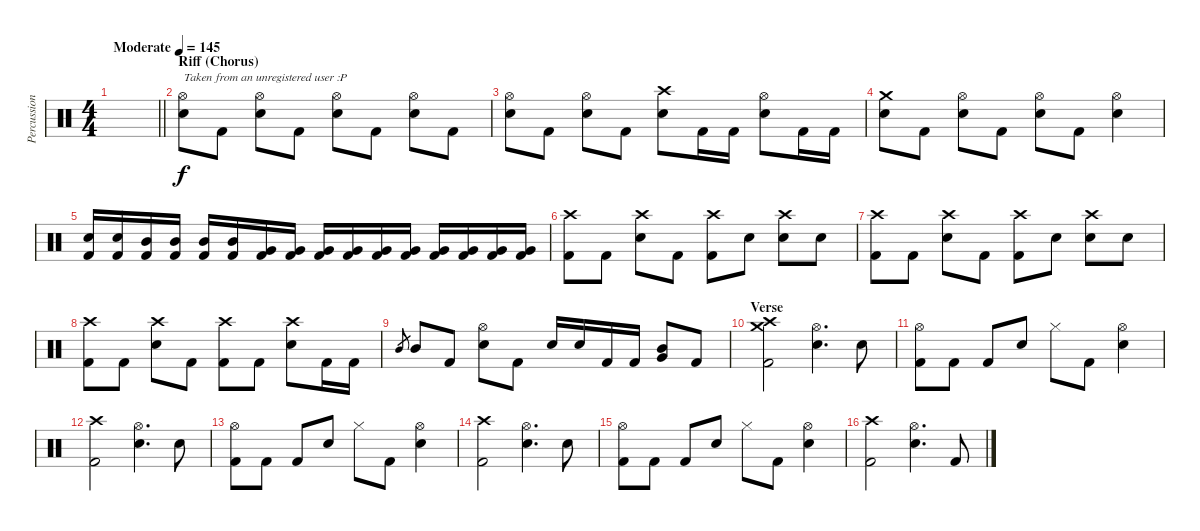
\track ("Percussion" "Percussion") {instrument percussion}
\staff {score}
\articulation defaults
\ts (4 4)
\tempo (145 "Moderate")
\clef neutral
\barLineRight lightlight
\ks c
|
\section ("" "Riff (Chorus)")
("Hi-Hat (open)" "Snare (hit) 2").8{txt "Taken from an unregistered user :P"} "Kick (hit) 2".8 ("Hi-Hat (open)" "Snare (hit) 2").8 "Kick (hit) 2".8 ("Hi-Hat (open)" "Snare (hit) 2").8 "Kick (hit) 2".8 ("Hi-Hat (open)" "Snare (hit) 2").8 "Kick (hit) 2".8 |
("Hi-Hat (open)" "Snare (hit) 2").8 "Kick (hit) 2".8 ("Hi-Hat (open)" "Snare (hit) 2").8 "Kick (hit) 2".8 ("Crash high (hit)" "Snare (hit) 2").8 "Kick (hit) 2".16 "Kick (hit) 2".16 ("Hi-Hat (open)" "Snare (hit) 2").8 "Kick (hit) 2".16 "Kick (hit) 2".16 |
("Crash medium (hit)" "Snare (hit) 2").8 "Kick (hit) 2".8 ("Hi-Hat (open)" "Snare (hit) 2").8 "Kick (hit) 2".8 ("Hi-Hat (open)" "Snare (hit) 2").8 "Kick (hit) 2".8 ("Hi-Hat (open)" "Snare (hit) 2").4 |
("Snare (hit) 2" "Kick (hit) 2").16 ("Snare (hit) 2" "Kick (hit) 2").16 ("Mid Tom (hit)" "Kick (hit) 2").16 ("Mid Tom (hit)" "Kick (hit) 2").16 ("Mid Tom (hit)" "Kick (hit) 2").16 ("Mid Tom (hit)" "Kick (hit) 2").16 ("Very Low Tom (hit)" "Kick (hit) 2").16 ("Very Low Tom (hit)" "Kick (hit) 2").16 ("Very Low Tom (hit)" "Kick (hit) 2").16 ("Very Low Tom (hit)" "Kick (hit) 2").16 ("Very Low Tom (hit)" "Kick (hit) 2").16 ("Very Low Tom (hit)" "Kick (hit) 2").16 ("Very Low Tom (hit)" "Kick (hit) 2").16 ("Very Low Tom (hit)" "Kick (hit) 2").16 ("Very Low Tom (hit)" "Kick (hit) 2").16 ("Very Low Tom (hit)" "Kick (hit) 2").16 |
("Crash high (hit)" "Kick (hit) 2").8 "Kick (hit) 2".8 ("Crash high (hit)" "Snare (hit) 2").8 "Kick (hit) 2".8 ("Crash high (hit)" "Kick (hit) 2").8 "Snare (hit) 2".8 ("Crash high (hit)" "Snare (hit) 2").8 "Snare (hit) 2".8 |
("Crash high (hit)" "Kick (hit) 2").8 "Kick (hit) 2".8 ("Crash high (hit)" "Snare (hit) 2").8 "Kick (hit) 2".8 ("Crash high (hit)" "Kick (hit) 2").8 "Snare (hit) 2".8 ("Crash high (hit)" "Snare (hit) 2").8 "Snare (hit) 2".8 |
("Crash high (hit)" "Kick (hit) 2").8 "Kick (hit) 2".8 ("Crash high (hit)" "Snare (hit) 2").8 "Kick (hit) 2".8 ("Crash high (hit)" "Kick (hit) 2").8 "Kick (hit) 2".8 ("Crash high (hit)" "Snare (hit) 2").8 "Kick (hit) 2".16 "Kick (hit) 2".16 |
"Mid Tom (hit)".8{gr} "Mid Tom (hit)".8 "Kick (hit) 2".8 ("Hi-Hat (open)" "Snare (hit) 2").8 "Kick (hit) 2".8 "Snare (hit) 2".16 "Snare (hit) 2".16 "Kick (hit) 2".16 "Kick (hit) 2".16 ("Mid Tom (hit)" "Very Low Tom (hit)").8 "Kick (hit) 2".8 |
\section ("" "Verse")
("Crash high (hit)" "Crash medium (hit)" "Kick (hit) 2").2 ("Hi-Hat (open)" "Snare (hit) 2").4{d} "Snare (hit) 2".8 |
("Hi-Hat (open)" "Kick (hit) 2").8 "Kick (hit) 2".8 "Kick (hit) 2".8 "Snare (hit) 2".8 "Hi-Hat (closed)".8 "Kick (hit) 2".8 ("Hi-Hat (open)" "Snare (hit) 2").4 |
("Crash high (hit)" "Kick (hit) 2").2 ("Hi-Hat (open)" "Snare (hit) 2").4{d} "Snare (hit) 2".8 |
("Hi-Hat (open)" "Kick (hit) 2").8 "Kick (hit) 2".8 "Kick (hit) 2".8 "Snare (hit) 2".8 "Hi-Hat (closed)".8 "Kick (hit) 2".8 ("Hi-Hat (open)" "Snare (hit) 2").4 |
("Crash high (hit)" "Kick (hit) 2").2 ("Hi-Hat (open)" "Snare (hit) 2").4{d} "Snare (hit) 2".8 |
("Hi-Hat (open)" "Kick (hit) 2").8 "Kick (hit) 2".8 "Kick (hit) 2".8 "Snare (hit) 2".8 "Hi-Hat (closed)".8 "Kick (hit) 2".8 ("Hi-Hat (open)" "Snare (hit) 2").4 |
("Crash high (hit)" "Kick (hit) 2").2 ("Hi-Hat (open)" "Snare (hit) 2").4{d} "Kick (hit) 2".8
